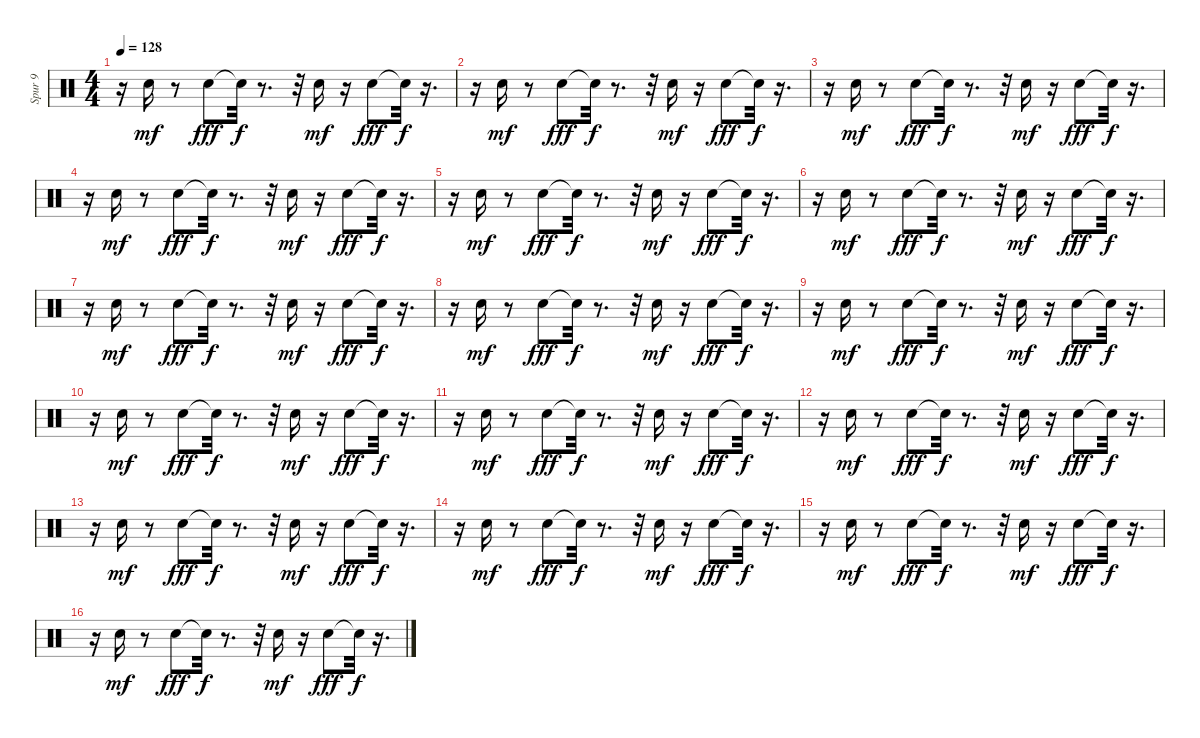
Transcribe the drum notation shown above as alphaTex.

\track ("Spur 9" "Spur 9") {instrument percussion}
\staff {score}
\articulation defaults
\ts (4 4)
\tempo 128
\clef neutral
\ks c
r.16{dy f} "Snare (hit) 2".16{dy mf} r.8 "Electric Snare (hit)".8{dy fff} "Snare (hit)"{t}.32{dy f} r.8{d} r.32 "Snare (hit) 2".16{dy mf} r.16 "Electric Snare (hit)".8{dy fff} "Snare (hit)"{t}.32{dy f} r.16{d} |
r.16 "Snare (hit) 2".16{dy mf} r.8 "Electric Snare (hit)".8{dy fff} "Snare (hit)"{t}.32{dy f} r.8{d} r.32 "Snare (hit) 2".16{dy mf} r.16 "Electric Snare (hit)".8{dy fff} "Snare (hit)"{t}.32{dy f} r.16{d} |
r.16 "Snare (hit) 2".16{dy mf} r.8 "Electric Snare (hit)".8{dy fff} "Snare (hit)"{t}.32{dy f} r.8{d} r.32 "Snare (hit) 2".16{dy mf} r.16 "Electric Snare (hit)".8{dy fff} "Snare (hit)"{t}.32{dy f} r.16{d} |
r.16 "Snare (hit) 2".16{dy mf} r.8 "Electric Snare (hit)".8{dy fff} "Snare (hit)"{t}.32{dy f} r.8{d} r.32 "Snare (hit) 2".16{dy mf} r.16 "Electric Snare (hit)".8{dy fff} "Snare (hit)"{t}.32{dy f} r.16{d} |
r.16 "Snare (hit) 2".16{dy mf} r.8 "Electric Snare (hit)".8{dy fff} "Snare (hit)"{t}.32{dy f} r.8{d} r.32 "Snare (hit) 2".16{dy mf} r.16 "Electric Snare (hit)".8{dy fff} "Snare (hit)"{t}.32{dy f} r.16{d} |
r.16 "Snare (hit) 2".16{dy mf} r.8 "Electric Snare (hit)".8{dy fff} "Snare (hit)"{t}.32{dy f} r.8{d} r.32 "Snare (hit) 2".16{dy mf} r.16 "Electric Snare (hit)".8{dy fff} "Snare (hit)"{t}.32{dy f} r.16{d} |
r.16 "Snare (hit) 2".16{dy mf} r.8 "Electric Snare (hit)".8{dy fff} "Snare (hit)"{t}.32{dy f} r.8{d} r.32 "Snare (hit) 2".16{dy mf} r.16 "Electric Snare (hit)".8{dy fff} "Snare (hit)"{t}.32{dy f} r.16{d} |
r.16 "Snare (hit) 2".16{dy mf} r.8 "Electric Snare (hit)".8{dy fff} "Snare (hit)"{t}.32{dy f} r.8{d} r.32 "Snare (hit) 2".16{dy mf} r.16 "Electric Snare (hit)".8{dy fff} "Snare (hit)"{t}.32{dy f} r.16{d} |
r.16 "Snare (hit) 2".16{dy mf} r.8 "Electric Snare (hit)".8{dy fff} "Snare (hit)"{t}.32{dy f} r.8{d} r.32 "Snare (hit) 2".16{dy mf} r.16 "Electric Snare (hit)".8{dy fff} "Snare (hit)"{t}.32{dy f} r.16{d} |
r.16 "Snare (hit) 2".16{dy mf} r.8 "Electric Snare (hit)".8{dy fff} "Snare (hit)"{t}.32{dy f} r.8{d} r.32 "Snare (hit) 2".16{dy mf} r.16 "Electric Snare (hit)".8{dy fff} "Snare (hit)"{t}.32{dy f} r.16{d} |
r.16 "Snare (hit) 2".16{dy mf} r.8 "Electric Snare (hit)".8{dy fff} "Snare (hit)"{t}.32{dy f} r.8{d} r.32 "Snare (hit) 2".16{dy mf} r.16 "Electric Snare (hit)".8{dy fff} "Snare (hit)"{t}.32{dy f} r.16{d} |
r.16 "Snare (hit) 2".16{dy mf} r.8 "Electric Snare (hit)".8{dy fff} "Snare (hit)"{t}.32{dy f} r.8{d} r.32 "Snare (hit) 2".16{dy mf} r.16 "Electric Snare (hit)".8{dy fff} "Snare (hit)"{t}.32{dy f} r.16{d} |
r.16 "Snare (hit) 2".16{dy mf} r.8 "Electric Snare (hit)".8{dy fff} "Snare (hit)"{t}.32{dy f} r.8{d} r.32 "Snare (hit) 2".16{dy mf} r.16 "Electric Snare (hit)".8{dy fff} "Snare (hit)"{t}.32{dy f} r.16{d} |
r.16 "Snare (hit) 2".16{dy mf} r.8 "Electric Snare (hit)".8{dy fff} "Snare (hit)"{t}.32{dy f} r.8{d} r.32 "Snare (hit) 2".16{dy mf} r.16 "Electric Snare (hit)".8{dy fff} "Snare (hit)"{t}.32{dy f} r.16{d} |
r.16 "Snare (hit) 2".16{dy mf} r.8 "Electric Snare (hit)".8{dy fff} "Snare (hit)"{t}.32{dy f} r.8{d} r.32 "Snare (hit) 2".16{dy mf} r.16 "Electric Snare (hit)".8{dy fff} "Snare (hit)"{t}.32{dy f} r.16{d} |
r.16 "Snare (hit) 2".16{dy mf} r.8 "Electric Snare (hit)".8{dy fff} "Snare (hit)"{t}.32{dy f} r.8{d} r.32 "Snare (hit) 2".16{dy mf} r.16 "Electric Snare (hit)".8{dy fff} "Snare (hit)"{t}.32{dy f} r.16{d}
